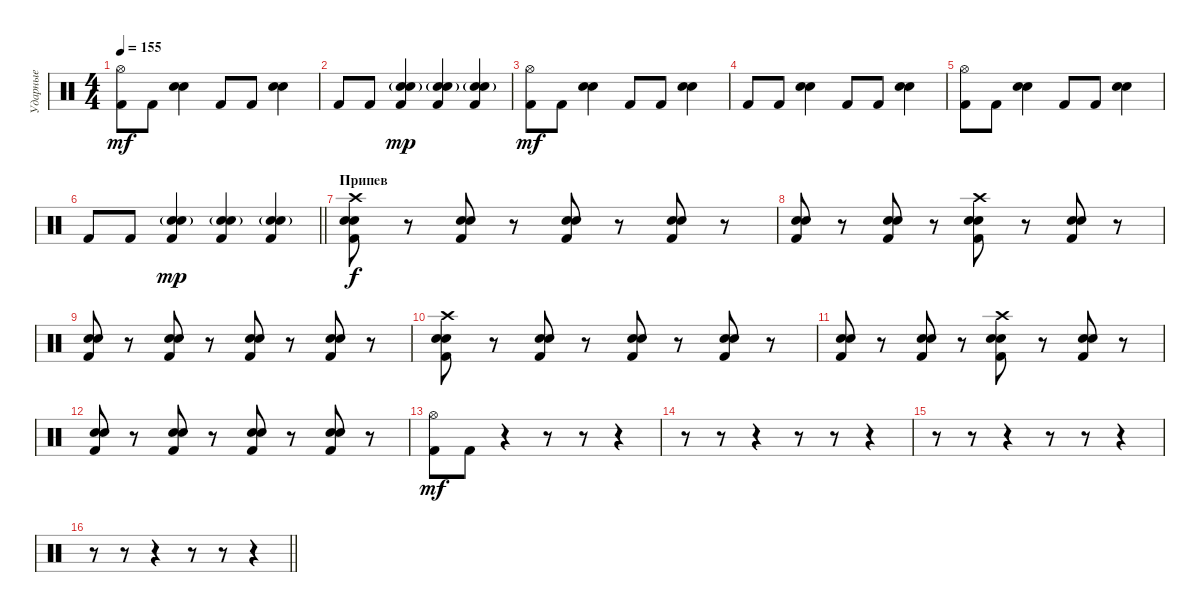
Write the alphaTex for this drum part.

\track ("Ударные" "Ударные") {instrument percussion}
\staff {score}
\articulation defaults
\ts (4 4)
\tempo 155
\clef neutral
\ks c
("Hi-Hat (open)" "Kick (hit) 2").8{dy mf} "Kick (hit) 2".8 ("Electric Snare (hit)" "Snare (hit) 2").4 "Kick (hit) 2".8 "Kick (hit) 2".8 ("Electric Snare (hit)" "Snare (hit) 2").4 |
"Kick (hit) 2".8 "Kick (hit) 2".8 ("Electric Snare (hit)" "Kick (hit) 2" "Snare (hit) 2"{g}).4{dy mp} ("Electric Snare (hit)" "Kick (hit) 2" "Snare (hit) 2"{g}).4 ("Electric Snare (hit)" "Kick (hit) 2" "Snare (hit) 2"{g}).4 |
("Hi-Hat (open)" "Kick (hit) 2").8{dy mf} "Kick (hit) 2".8 ("Electric Snare (hit)" "Snare (hit) 2").4 "Kick (hit) 2".8 "Kick (hit) 2".8 ("Electric Snare (hit)" "Snare (hit) 2").4 |
"Kick (hit) 2".8 "Kick (hit) 2".8 ("Electric Snare (hit)" "Snare (hit) 2").4 "Kick (hit) 2".8 "Kick (hit) 2".8 ("Electric Snare (hit)" "Snare (hit) 2").4 |
("Hi-Hat (open)" "Kick (hit) 2").8 "Kick (hit) 2".8 ("Electric Snare (hit)" "Snare (hit) 2").4 "Kick (hit) 2".8 "Kick (hit) 2".8 ("Electric Snare (hit)" "Snare (hit) 2").4 |
\barLineRight lightlight "Kick (hit) 2".8 "Kick (hit) 2".8
("Electric Snare (hit)" "Kick (hit) 2" "Snare (hit) 2"{g}).4{dy mp} ("Electric Snare (hit)" "Kick (hit) 2" "Snare (hit) 2"{g}).4 ("Electric Snare (hit)" "Kick (hit) 2" "Snare (hit) 2"{g}).4 |
\section ("" "Припев")
("Snare (hit) 2" "Electric Snare (hit)" "Crash high (hit)" "Kick (hit) 2").8{dy f} r.8 ("Snare (hit) 2" "Electric Snare (hit)" "Kick (hit) 2").8 r.8 ("Snare (hit) 2" "Electric Snare (hit)" "Kick (hit) 2").8 r.8 ("Snare (hit) 2" "Electric Snare (hit)" "Kick (hit) 2").8 r.8 |
("Snare (hit) 2" "Electric Snare (hit)" "Kick (hit) 2").8 r.8 ("Snare (hit) 2" "Electric Snare (hit)" "Kick (hit) 2").8 r.8 ("Snare (hit) 2" "Electric Snare (hit)" "Crash high (hit)" "Kick (hit) 2").8 r.8 ("Snare (hit) 2" "Electric Snare (hit)" "Kick (hit) 2").8 r.8 |
("Snare (hit) 2" "Electric Snare (hit)" "Kick (hit) 2").8 r.8 ("Snare (hit) 2" "Electric Snare (hit)" "Kick (hit) 2").8 r.8 ("Snare (hit) 2" "Electric Snare (hit)" "Kick (hit) 2").8 r.8 ("Snare (hit) 2" "Electric Snare (hit)" "Kick (hit) 2").8 r.8 |
("Snare (hit) 2" "Electric Snare (hit)" "Crash high (hit)" "Kick (hit) 2").8 r.8 ("Snare (hit) 2" "Electric Snare (hit)" "Kick (hit) 2").8 r.8 ("Snare (hit) 2" "Electric Snare (hit)" "Kick (hit) 2").8 r.8 ("Snare (hit) 2" "Electric Snare (hit)" "Kick (hit) 2").8 r.8 |
("Snare (hit) 2" "Electric Snare (hit)" "Kick (hit) 2").8 r.8 ("Snare (hit) 2" "Electric Snare (hit)" "Kick (hit) 2").8 r.8 ("Snare (hit) 2" "Electric Snare (hit)" "Crash high (hit)" "Kick (hit) 2").8 r.8 ("Snare (hit) 2" "Electric Snare (hit)" "Kick (hit) 2").8 r.8 |
("Snare (hit) 2" "Electric Snare (hit)" "Kick (hit) 2").8 r.8 ("Snare (hit) 2" "Electric Snare (hit)" "Kick (hit) 2").8 r.8 ("Snare (hit) 2" "Electric Snare (hit)" "Kick (hit) 2").8 r.8 ("Snare (hit) 2" "Electric Snare (hit)" "Kick (hit) 2").8 r.8 |
("Hi-Hat (open)" "Kick (hit) 2").8{dy mf} "Kick (hit) 2".8 r.4 r.8 r.8 r.4 |
r.8 r.8 r.4 r.8 r.8 r.4 |
r.8 r.8 r.4 r.8 r.8 r.4 |
\barLineRight lightlight
r.8 r.8 r.4 r.8 r.8 r.4
